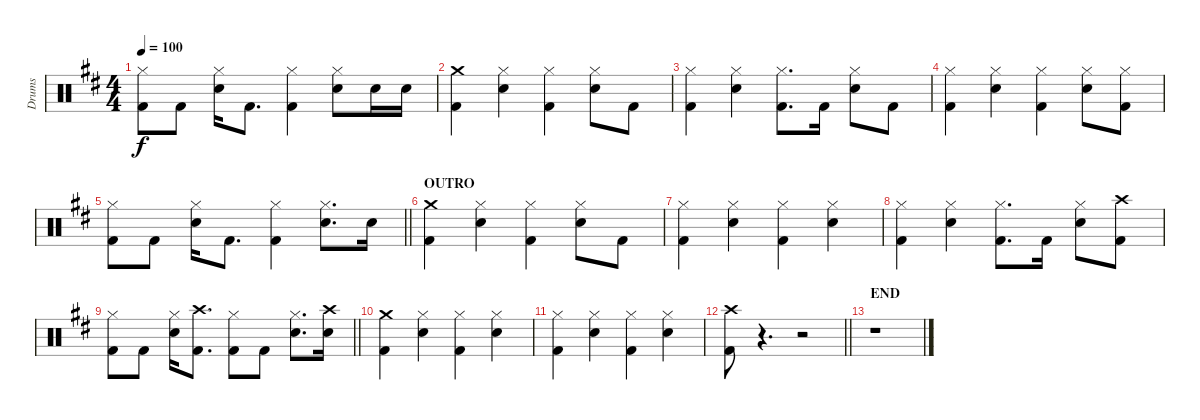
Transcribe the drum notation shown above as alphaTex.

\track ("Drums" "Drums") {instrument percussion}
\staff {score}
\articulation defaults
\ts (4 4)
\tempo 100
\clef neutral
\ks d
("Hi-Hat (closed)" "Kick (hit) 2").8{dy f} "Kick (hit) 2".8 ("Hi-Hat (closed)" "Electric Snare (hit)").16 "Kick (hit) 2".8{d} ("Hi-Hat (closed)" "Kick (hit) 2").4 ("Hi-Hat (closed)" "Electric Snare (hit)").8 "Electric Snare (hit)".16 "Electric Snare (hit)".16 |
("Crash medium (hit)" "Kick (hit) 2").4 ("Hi-Hat (closed)" "Electric Snare (hit)").4 ("Hi-Hat (closed)" "Kick (hit) 2").4 ("Hi-Hat (closed)" "Electric Snare (hit)").8 "Kick (hit) 2".8 |
("Hi-Hat (closed)" "Kick (hit) 2").4 ("Hi-Hat (closed)" "Electric Snare (hit)").4 ("Hi-Hat (closed)" "Kick (hit) 2").8{d} "Kick (hit) 2".16 ("Hi-Hat (closed)" "Electric Snare (hit)").8 "Kick (hit) 2".8 |
("Hi-Hat (closed)" "Kick (hit) 2").4 ("Hi-Hat (closed)" "Electric Snare (hit)").4 ("Hi-Hat (closed)" "Kick (hit) 2").4 ("Hi-Hat (closed)" "Electric Snare (hit)").8 ("Hi-Hat (closed)" "Kick (hit) 2").8 |
\barLineRight lightlight
("Hi-Hat (closed)" "Kick (hit) 2").8 "Kick (hit) 2".8 ("Hi-Hat (closed)" "Electric Snare (hit)").16 "Kick (hit) 2".8{d} ("Hi-Hat (closed)" "Kick (hit) 2").4 ("Hi-Hat (closed)" "Electric Snare (hit)").8{d} "Electric Snare (hit)".16 |
\section ("" "OUTRO")
("Crash medium (hit)" "Kick (hit) 2").4 ("Hi-Hat (closed)" "Electric Snare (hit)").4 ("Hi-Hat (closed)" "Kick (hit) 2").4 ("Hi-Hat (closed)" "Electric Snare (hit)").8 "Kick (hit) 2".8 |
("Hi-Hat (closed)" "Kick (hit) 2").4 ("Hi-Hat (closed)" "Electric Snare (hit)").4 ("Hi-Hat (closed)" "Kick (hit) 2").4 ("Hi-Hat (closed)" "Electric Snare (hit)").4 |
("Hi-Hat (closed)" "Kick (hit) 2").4 ("Hi-Hat (closed)" "Electric Snare (hit)").4 ("Hi-Hat (closed)" "Kick (hit) 2").8{d} "Kick (hit) 2".16 ("Hi-Hat (closed)" "Electric Snare (hit)").8 ("Crash high (hit)" "Kick (hit) 2").8 |
\barLineRight lightlight
("Hi-Hat (closed)" "Kick (hit) 2").8 "Kick (hit) 2".8 ("Hi-Hat (closed)" "Electric Snare (hit)").16 ("Crash high (hit)" "Kick (hit) 2").8{d} ("Hi-Hat (closed)" "Kick (hit) 2").8 "Kick (hit) 2".8 ("Hi-Hat (closed)" "Electric Snare (hit)").8{d} ("Crash high (hit)" "Electric Snare (hit)").16 |
("Crash medium (hit)" "Kick (hit) 2").4 ("Hi-Hat (closed)" "Electric Snare (hit)").4 ("Hi-Hat (closed)" "Kick (hit) 2").4 ("Hi-Hat (closed)" "Electric Snare (hit)").4 |
("Hi-Hat (closed)" "Kick (hit) 2").4 ("Hi-Hat (closed)" "Electric Snare (hit)").4 ("Hi-Hat (closed)" "Kick (hit) 2").4 ("Hi-Hat (closed)" "Electric Snare (hit)").4 |
\barLineRight lightlight
("Crash high (hit)" "Kick (hit) 2").8 r.4{d} r.2 |
\section ("" "END")
r.1
